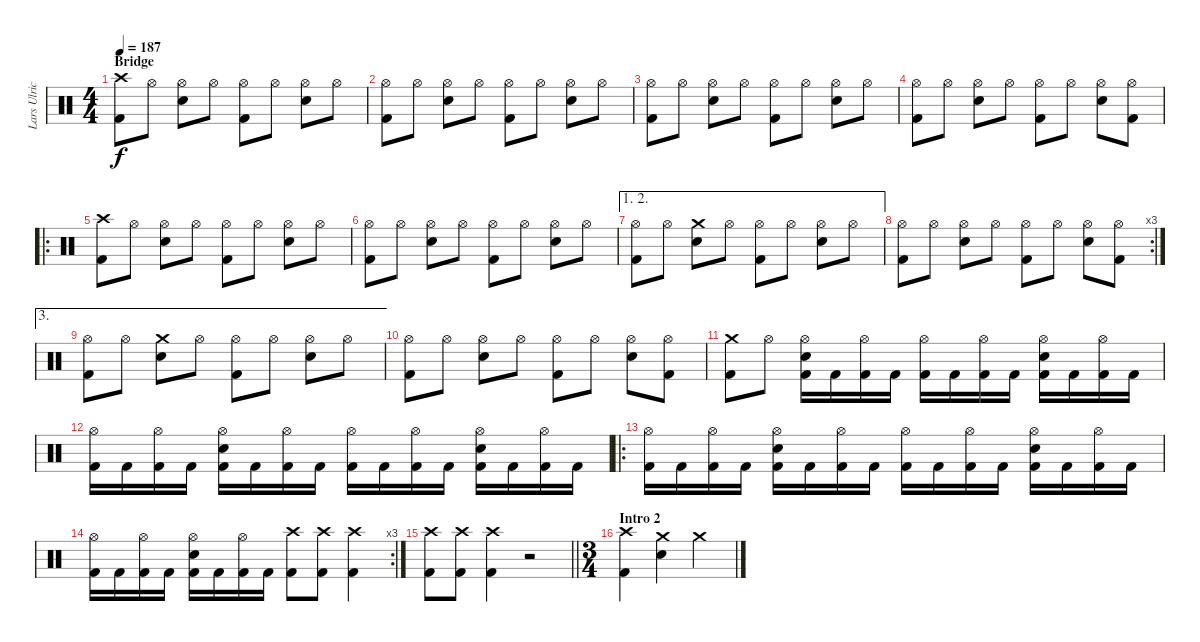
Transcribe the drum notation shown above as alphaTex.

\track ("Lars Ulrich" "Lars Ulric") {instrument percussion}
\staff {score}
\articulation defaults
\ts (4 4)
\section ("" "Bridge")
\tempo 187
\clef neutral
\ks c
("Crash high (hit)" "Kick (hit) 2").8{dy f} "Hi-Hat (open)".8 ("Hi-Hat (open)" "Snare (hit) 2").8 "Hi-Hat (open)".8 ("Hi-Hat (open)" "Kick (hit) 2").8 "Hi-Hat (open)".8 ("Hi-Hat (open)" "Snare (hit) 2").8 "Hi-Hat (open)".8 |
("Hi-Hat (open)" "Kick (hit) 2").8 "Hi-Hat (open)".8 ("Hi-Hat (open)" "Snare (hit) 2").8 "Hi-Hat (open)".8 ("Hi-Hat (open)" "Kick (hit) 2").8 "Hi-Hat (open)".8 ("Hi-Hat (open)" "Snare (hit) 2").8 "Hi-Hat (open)".8 |
("Hi-Hat (open)" "Kick (hit) 2").8 "Hi-Hat (open)".8 ("Hi-Hat (open)" "Snare (hit) 2").8 "Hi-Hat (open)".8 ("Hi-Hat (open)" "Kick (hit) 2").8 "Hi-Hat (open)".8 ("Hi-Hat (open)" "Snare (hit) 2").8 "Hi-Hat (open)".8 |
("Hi-Hat (open)" "Kick (hit) 2").8 "Hi-Hat (open)".8 ("Hi-Hat (open)" "Snare (hit) 2").8 "Hi-Hat (open)".8 ("Hi-Hat (open)" "Kick (hit) 2").8 "Hi-Hat (open)".8 ("Hi-Hat (open)" "Snare (hit) 2").8 ("Hi-Hat (open)" "Kick (hit) 2").8 |
\ro
("Crash high (hit)" "Kick (hit) 2").8 "Hi-Hat (open)".8 ("Hi-Hat (open)" "Snare (hit) 2").8 "Hi-Hat (open)".8 ("Hi-Hat (open)" "Kick (hit) 2").8 "Hi-Hat (open)".8 ("Hi-Hat (open)" "Snare (hit) 2").8 "Hi-Hat (open)".8 |
("Hi-Hat (open)" "Kick (hit) 2").8 "Hi-Hat (open)".8 ("Hi-Hat (open)" "Snare (hit) 2").8 "Hi-Hat (open)".8 ("Hi-Hat (open)" "Kick (hit) 2").8 "Hi-Hat (open)".8 ("Hi-Hat (open)" "Snare (hit) 2").8 "Hi-Hat (open)".8 |
\ae (1 2)
("Hi-Hat (open)" "Kick (hit) 2").8 "Hi-Hat (open)".8 ("Crash medium (hit)" "Snare (hit) 2").8 "Hi-Hat (open)".8 ("Hi-Hat (open)" "Kick (hit) 2").8 "Hi-Hat (open)".8 ("Hi-Hat (open)" "Snare (hit) 2").8 "Hi-Hat (open)".8 |
\rc 3
("Hi-Hat (open)" "Kick (hit) 2").8 "Hi-Hat (open)".8 ("Hi-Hat (open)" "Snare (hit) 2").8 "Hi-Hat (open)".8 ("Hi-Hat (open)" "Kick (hit) 2").8 "Hi-Hat (open)".8 ("Hi-Hat (open)" "Snare (hit) 2").8 ("Hi-Hat (open)" "Kick (hit) 2").8 |
\ae 3
("Hi-Hat (open)" "Kick (hit) 2").8 "Hi-Hat (open)".8 ("Crash medium (hit)" "Snare (hit) 2").8 "Hi-Hat (open)".8 ("Hi-Hat (open)" "Kick (hit) 2").8 "Hi-Hat (open)".8 ("Hi-Hat (open)" "Snare (hit) 2").8 "Hi-Hat (open)".8 |
("Hi-Hat (open)" "Kick (hit) 2").8 "Hi-Hat (open)".8 ("Hi-Hat (open)" "Snare (hit) 2").8 "Hi-Hat (open)".8 ("Hi-Hat (open)" "Kick (hit) 2").8 "Hi-Hat (open)".8 ("Hi-Hat (open)" "Snare (hit) 2").8 ("Hi-Hat (open)" "Kick (hit) 2").8 |
("Crash medium (hit)" "Kick (hit) 2").8 "Hi-Hat (open)".8 ("Hi-Hat (open)" "Snare (hit) 2" "Kick (hit) 2").16 "Kick (hit) 2".16 ("Hi-Hat (open)" "Kick (hit) 2").16 "Kick (hit) 2".16 ("Hi-Hat (open)" "Kick (hit) 2").16 "Kick (hit) 2".16 ("Hi-Hat (open)" "Kick (hit) 2").16 "Kick (hit) 2".16 ("Hi-Hat (open)" "Snare (hit) 2" "Kick (hit) 2").16 "Kick (hit) 2".16 ("Hi-Hat (open)" "Kick (hit) 2").16 "Kick (hit) 2".16 |
("Hi-Hat (open)" "Kick (hit) 2").16 "Kick (hit) 2".16 ("Hi-Hat (open)" "Kick (hit) 2").16 "Kick (hit) 2".16 ("Hi-Hat (open)" "Snare (hit) 2" "Kick (hit) 2").16 "Kick (hit) 2".16 ("Hi-Hat (open)" "Kick (hit) 2").16 "Kick (hit) 2".16 ("Hi-Hat (open)" "Kick (hit) 2").16 "Kick (hit) 2".16 ("Hi-Hat (open)" "Kick (hit) 2").16 "Kick (hit) 2".16 ("Hi-Hat (open)" "Snare (hit) 2" "Kick (hit) 2").16 "Kick (hit) 2".16 ("Hi-Hat (open)" "Kick (hit) 2").16 "Kick (hit) 2".16 |
\ro
("Hi-Hat (open)" "Kick (hit) 2").16 "Kick (hit) 2".16 ("Hi-Hat (open)" "Kick (hit) 2").16 "Kick (hit) 2".16 ("Hi-Hat (open)" "Snare (hit) 2" "Kick (hit) 2").16 "Kick (hit) 2".16 ("Hi-Hat (open)" "Kick (hit) 2").16 "Kick (hit) 2".16 ("Hi-Hat (open)" "Kick (hit) 2").16 "Kick (hit) 2".16 ("Hi-Hat (open)" "Kick (hit) 2").16 "Kick (hit) 2".16 ("Hi-Hat (open)" "Snare (hit) 2" "Kick (hit) 2").16 "Kick (hit) 2".16 ("Hi-Hat (open)" "Kick (hit) 2").16 "Kick (hit) 2".16 |
\rc 3
("Hi-Hat (open)" "Kick (hit) 2").16 "Kick (hit) 2".16 ("Hi-Hat (open)" "Kick (hit) 2").16 "Kick (hit) 2".16 ("Hi-Hat (open)" "Snare (hit) 2" "Kick (hit) 2").16 "Kick (hit) 2".16 ("Hi-Hat (open)" "Kick (hit) 2").16 "Kick (hit) 2".16 ("Crash high (hit)" "Kick (hit) 2").8 ("Crash high (hit)" "Kick (hit) 2").8 ("Crash high (hit)" "Kick (hit) 2").4 |
\barLineRight lightlight
("Crash high (hit)" "Kick (hit) 2").8 ("Crash high (hit)" "Kick (hit) 2").8 ("Crash high (hit)" "Kick (hit) 2").4 r.2 |
\ts (3 4)
\section ("" "Intro 2")
("Crash high (hit)" "Kick (hit) 2").4 ("Crash medium (hit)" "Snare (hit) 2").4 "Crash medium (hit)".4
